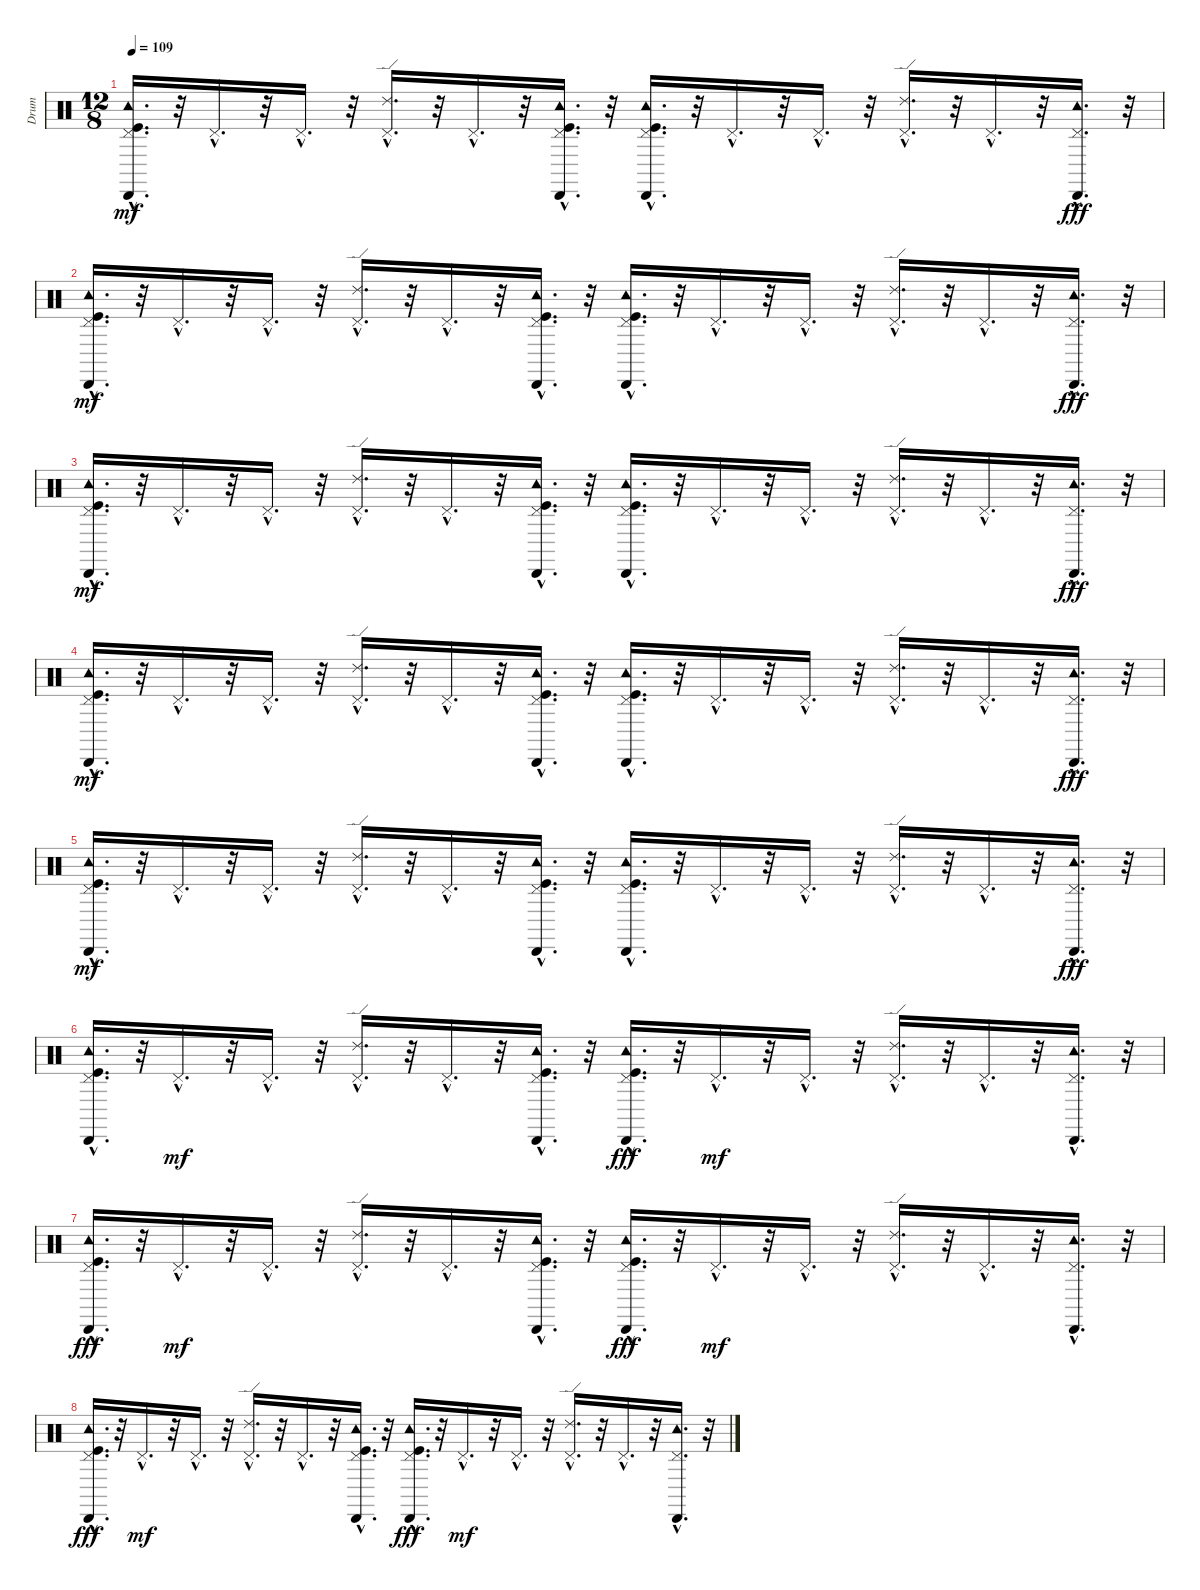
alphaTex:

\track ("Drum" "Drum") {instrument percussion}
\staff {score}
\articulation defaults
\ts (12 8)
\tempo 109
\clef neutral
\ks c
("Pedal Hi-Hat (hit)"{hac} "Tambourine (hit)"{hac} "Cabasa (hit)"{hac} "Kick (hit)"{hac}).16{d dy mf} r.32 "Pedal Hi-Hat (hit)"{hac}.16{d} r.32 "Pedal Hi-Hat (hit)"{hac}.16{d} r.32 ("Ride (edge) 2"{hac} "Pedal Hi-Hat (hit)"{hac}).16{d} r.32 "Pedal Hi-Hat (hit)"{hac}.16{d} r.32 ("Cabasa (hit)"{hac} "Pedal Hi-Hat (hit)"{hac} "Tambourine (hit)"{hac} "Kick (hit)"{hac}).16{d} r.32 ("Tambourine (hit)"{hac} "Pedal Hi-Hat (hit)"{hac} "Cabasa (hit)"{hac} "Kick (hit)"{hac}).16{d} r.32 "Pedal Hi-Hat (hit)"{hac}.16{d} r.32 "Pedal Hi-Hat (hit)"{hac}.16{d} r.32 ("Ride (edge) 2"{hac} "Pedal Hi-Hat (hit)"{hac}).16{d} r.32 "Pedal Hi-Hat (hit)"{hac}.16{d} r.32 ("Tambourine (hit)"{hac} "Pedal Hi-Hat (hit)"{hac} "Cabasa (hit)"{hac}).16{d dy fff} r.32 |
("Cabasa (hit)"{hac} "Pedal Hi-Hat (hit)"{hac} "Tambourine (hit)"{hac} "Kick (hit)"{hac}).16{d dy mf} r.32 "Pedal Hi-Hat (hit)"{hac}.16{d} r.32 "Pedal Hi-Hat (hit)"{hac}.16{d} r.32 ("Pedal Hi-Hat (hit)"{hac} "Ride (edge) 2"{hac}).16{d} r.32 "Pedal Hi-Hat (hit)"{hac}.16{d} r.32 ("Tambourine (hit)"{hac} "Pedal Hi-Hat (hit)"{hac} "Cabasa (hit)"{hac} "Kick (hit)"{hac}).16{d} r.32 ("Cabasa (hit)"{hac} "Pedal Hi-Hat (hit)"{hac} "Tambourine (hit)"{hac} "Kick (hit)"{hac}).16{d} r.32 "Pedal Hi-Hat (hit)"{hac}.16{d} r.32 "Pedal Hi-Hat (hit)"{hac}.16{d} r.32 ("Pedal Hi-Hat (hit)"{hac} "Ride (edge) 2"{hac}).16{d} r.32 "Pedal Hi-Hat (hit)"{hac}.16{d} r.32 ("Tambourine (hit)"{hac} "Pedal Hi-Hat (hit)"{hac} "Cabasa (hit)"{hac}).16{d dy fff} r.32 |
("Cabasa (hit)"{hac} "Pedal Hi-Hat (hit)"{hac} "Tambourine (hit)"{hac} "Kick (hit)"{hac}).16{d dy mf} r.32 "Pedal Hi-Hat (hit)"{hac}.16{d} r.32 "Pedal Hi-Hat (hit)"{hac}.16{d} r.32 ("Pedal Hi-Hat (hit)"{hac} "Ride (edge) 2"{hac}).16{d} r.32 "Pedal Hi-Hat (hit)"{hac}.16{d} r.32 ("Tambourine (hit)"{hac} "Pedal Hi-Hat (hit)"{hac} "Cabasa (hit)"{hac} "Kick (hit)"{hac}).16{d} r.32 ("Cabasa (hit)"{hac} "Pedal Hi-Hat (hit)"{hac} "Tambourine (hit)"{hac} "Kick (hit)"{hac}).16{d} r.32 "Pedal Hi-Hat (hit)"{hac}.16{d} r.32 "Pedal Hi-Hat (hit)"{hac}.16{d} r.32 ("Pedal Hi-Hat (hit)"{hac} "Ride (edge) 2"{hac}).16{d} r.32 "Pedal Hi-Hat (hit)"{hac}.16{d} r.32 ("Tambourine (hit)"{hac} "Pedal Hi-Hat (hit)"{hac} "Cabasa (hit)"{hac}).16{d dy fff} r.32 |
("Cabasa (hit)"{hac} "Pedal Hi-Hat (hit)"{hac} "Tambourine (hit)"{hac} "Kick (hit)"{hac}).16{d dy mf} r.32 "Pedal Hi-Hat (hit)"{hac}.16{d} r.32 "Pedal Hi-Hat (hit)"{hac}.16{d} r.32 ("Pedal Hi-Hat (hit)"{hac} "Ride (edge) 2"{hac}).16{d} r.32 "Pedal Hi-Hat (hit)"{hac}.16{d} r.32 ("Tambourine (hit)"{hac} "Pedal Hi-Hat (hit)"{hac} "Cabasa (hit)"{hac} "Kick (hit)"{hac}).16{d} r.32 ("Cabasa (hit)"{hac} "Pedal Hi-Hat (hit)"{hac} "Tambourine (hit)"{hac} "Kick (hit)"{hac}).16{d} r.32 "Pedal Hi-Hat (hit)"{hac}.16{d} r.32 "Pedal Hi-Hat (hit)"{hac}.16{d} r.32 ("Pedal Hi-Hat (hit)"{hac} "Ride (edge) 2"{hac}).16{d} r.32 "Pedal Hi-Hat (hit)"{hac}.16{d} r.32 ("Tambourine (hit)"{hac} "Pedal Hi-Hat (hit)"{hac} "Cabasa (hit)"{hac}).16{d dy fff} r.32 |
("Cabasa (hit)"{hac} "Pedal Hi-Hat (hit)"{hac} "Tambourine (hit)"{hac} "Kick (hit)"{hac}).16{d dy mf} r.32 "Pedal Hi-Hat (hit)"{hac}.16{d} r.32 "Pedal Hi-Hat (hit)"{hac}.16{d} r.32 ("Pedal Hi-Hat (hit)"{hac} "Ride (edge) 2"{hac}).16{d} r.32 "Pedal Hi-Hat (hit)"{hac}.16{d} r.32 ("Tambourine (hit)"{hac} "Pedal Hi-Hat (hit)"{hac} "Cabasa (hit)"{hac} "Kick (hit)"{hac}).16{d} r.32 ("Cabasa (hit)"{hac} "Pedal Hi-Hat (hit)"{hac} "Tambourine (hit)"{hac} "Kick (hit)"{hac}).16{d} r.32 "Pedal Hi-Hat (hit)"{hac}.16{d} r.32 "Pedal Hi-Hat (hit)"{hac}.16{d} r.32 ("Pedal Hi-Hat (hit)"{hac} "Ride (edge) 2"{hac}).16{d} r.32 "Pedal Hi-Hat (hit)"{hac}.16{d} r.32 ("Tambourine (hit)"{hac} "Pedal Hi-Hat (hit)"{hac} "Cabasa (hit)"{hac}).16{d dy fff} r.32 |
("Kick (hit)"{hac} "Tambourine (hit)"{hac} "Pedal Hi-Hat (hit)"{hac} "Cabasa (hit)"{hac}).16{d} r.32 "Pedal Hi-Hat (hit)"{hac}.16{d dy mf} r.32 "Pedal Hi-Hat (hit)"{hac}.16{d} r.32 ("Ride (edge) 2"{hac} "Pedal Hi-Hat (hit)"{hac}).16{d} r.32 "Pedal Hi-Hat (hit)"{hac}.16{d} r.32 ("Kick (hit)"{hac} "Cabasa (hit)"{hac} "Pedal Hi-Hat (hit)"{hac} "Tambourine (hit)"{hac}).16{d} r.32 ("Kick (hit)"{hac} "Tambourine (hit)"{hac} "Pedal Hi-Hat (hit)"{hac} "Cabasa (hit)"{hac}).16{d dy fff} r.32 "Pedal Hi-Hat (hit)"{hac}.16{d dy mf} r.32 "Pedal Hi-Hat (hit)"{hac}.16{d} r.32 ("Ride (edge) 2"{hac} "Pedal Hi-Hat (hit)"{hac}).16{d} r.32 "Pedal Hi-Hat (hit)"{hac}.16{d} r.32 ("Cabasa (hit)"{hac} "Pedal Hi-Hat (hit)"{hac} "Tambourine (hit)"{hac}).16{d} r.32 |
("Kick (hit)"{hac} "Tambourine (hit)"{hac} "Pedal Hi-Hat (hit)"{hac} "Cabasa (hit)"{hac}).16{d dy fff} r.32 "Pedal Hi-Hat (hit)"{hac}.16{d dy mf} r.32 "Pedal Hi-Hat (hit)"{hac}.16{d} r.32 ("Ride (edge) 2"{hac} "Pedal Hi-Hat (hit)"{hac}).16{d} r.32 "Pedal Hi-Hat (hit)"{hac}.16{d} r.32 ("Kick (hit)"{hac} "Cabasa (hit)"{hac} "Pedal Hi-Hat (hit)"{hac} "Tambourine (hit)"{hac}).16{d} r.32 ("Kick (hit)"{hac} "Tambourine (hit)"{hac} "Pedal Hi-Hat (hit)"{hac} "Cabasa (hit)"{hac}).16{d dy fff} r.32 "Pedal Hi-Hat (hit)"{hac}.16{d dy mf} r.32 "Pedal Hi-Hat (hit)"{hac}.16{d} r.32 ("Ride (edge) 2"{hac} "Pedal Hi-Hat (hit)"{hac}).16{d} r.32 "Pedal Hi-Hat (hit)"{hac}.16{d} r.32 ("Cabasa (hit)"{hac} "Pedal Hi-Hat (hit)"{hac} "Tambourine (hit)"{hac}).16{d} r.32 |
("Kick (hit)"{hac} "Tambourine (hit)"{hac} "Pedal Hi-Hat (hit)"{hac} "Cabasa (hit)"{hac}).16{d dy fff} r.32 "Pedal Hi-Hat (hit)"{hac}.16{d dy mf} r.32 "Pedal Hi-Hat (hit)"{hac}.16{d} r.32 ("Ride (edge) 2"{hac} "Pedal Hi-Hat (hit)"{hac}).16{d} r.32 "Pedal Hi-Hat (hit)"{hac}.16{d} r.32 ("Kick (hit)"{hac} "Cabasa (hit)"{hac} "Pedal Hi-Hat (hit)"{hac} "Tambourine (hit)"{hac}).16{d} r.32 ("Kick (hit)"{hac} "Tambourine (hit)"{hac} "Pedal Hi-Hat (hit)"{hac} "Cabasa (hit)"{hac}).16{d dy fff} r.32 "Pedal Hi-Hat (hit)"{hac}.16{d dy mf} r.32 "Pedal Hi-Hat (hit)"{hac}.16{d} r.32 ("Ride (edge) 2"{hac} "Pedal Hi-Hat (hit)"{hac}).16{d} r.32 "Pedal Hi-Hat (hit)"{hac}.16{d} r.32 ("Cabasa (hit)"{hac} "Pedal Hi-Hat (hit)"{hac} "Tambourine (hit)"{hac}).16{d} r.32
